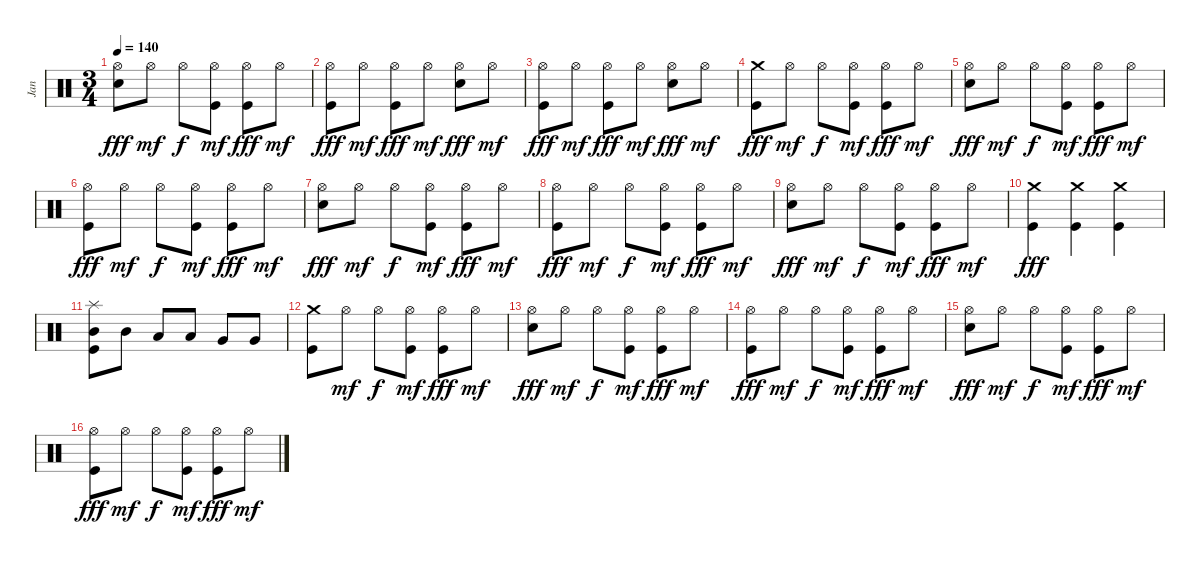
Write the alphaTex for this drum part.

\track ("Jan" "Jan") {instrument percussion}
\staff {score}
\articulation defaults
\ts (3 4)
\tempo 140
\clef neutral
\ks c
("Snare (hit) 2" "Hi-Hat (open)").8{dy fff} "Hi-Hat (open)".8{dy mf} "Hi-Hat (open)".8{dy f} ("Kick (hit)" "Hi-Hat (open)").8{dy mf} ("Kick (hit)" "Hi-Hat (open)").8{dy fff} "Hi-Hat (open)".8{dy mf} |
("Kick (hit)" "Hi-Hat (open)").8{dy fff} "Hi-Hat (open)".8{dy mf} ("Kick (hit)" "Hi-Hat (open)").8{dy fff} "Hi-Hat (open)".8{dy mf} ("Snare (hit) 2" "Hi-Hat (open)").8{dy fff} "Hi-Hat (open)".8{dy mf} |
("Kick (hit)" "Hi-Hat (open)").8{dy fff} "Hi-Hat (open)".8{dy mf} ("Kick (hit)" "Hi-Hat (open)").8{dy fff} "Hi-Hat (open)".8{dy mf} ("Snare (hit) 2" "Hi-Hat (open)").8{dy fff} "Hi-Hat (open)".8{dy mf} |
("Kick (hit)" "Crash medium (hit)").8{dy fff} "Hi-Hat (open)".8{dy mf} "Hi-Hat (open)".8{dy f} ("Kick (hit)" "Hi-Hat (open)").8{dy mf} ("Kick (hit)" "Hi-Hat (open)").8{dy fff} "Hi-Hat (open)".8{dy mf} |
("Snare (hit) 2" "Hi-Hat (open)").8{dy fff} "Hi-Hat (open)".8{dy mf} "Hi-Hat (open)".8{dy f} ("Kick (hit)" "Hi-Hat (open)").8{dy mf} ("Kick (hit)" "Hi-Hat (open)").8{dy fff} "Hi-Hat (open)".8{dy mf} |
("Kick (hit)" "Hi-Hat (open)").8{dy fff} "Hi-Hat (open)".8{dy mf} "Hi-Hat (open)".8{dy f} ("Kick (hit)" "Hi-Hat (open)").8{dy mf} ("Kick (hit)" "Hi-Hat (open)").8{dy fff} "Hi-Hat (open)".8{dy mf} |
("Snare (hit) 2" "Hi-Hat (open)").8{dy fff} "Hi-Hat (open)".8{dy mf} "Hi-Hat (open)".8{dy f} ("Kick (hit)" "Hi-Hat (open)").8{dy mf} ("Kick (hit)" "Hi-Hat (open)").8{dy fff} "Hi-Hat (open)".8{dy mf} |
("Kick (hit)" "Hi-Hat (open)").8{dy fff} "Hi-Hat (open)".8{dy mf} "Hi-Hat (open)".8{dy f} ("Kick (hit)" "Hi-Hat (open)").8{dy mf} ("Kick (hit)" "Hi-Hat (open)").8{dy fff} "Hi-Hat (open)".8{dy mf} |
("Snare (hit) 2" "Hi-Hat (open)").8{dy fff} "Hi-Hat (open)".8{dy mf} "Hi-Hat (open)".8{dy f} ("Kick (hit)" "Hi-Hat (open)").8{dy mf} ("Kick (hit)" "Hi-Hat (open)").8{dy fff} "Hi-Hat (open)".8{dy mf} |
("Kick (hit)" "Crash medium (hit)").4{dy fff} ("Kick (hit)" "Crash medium (hit)").4 ("Kick (hit)" "Crash medium (hit)").4 |
("Kick (hit)" "Mid Tom (hit)" "Splash (hit)").8 "Mid Tom (hit)".8 "Low Tom (hit)".8 "Low Tom (hit)".8 "Very Low Tom (hit)".8 "Very Low Tom (hit)".8 |
("Kick (hit)" "Crash medium (hit)").8 "Hi-Hat (open)".8{dy mf} "Hi-Hat (open)".8{dy f} ("Kick (hit)" "Hi-Hat (open)").8{dy mf} ("Kick (hit)" "Hi-Hat (open)").8{dy fff} "Hi-Hat (open)".8{dy mf} |
("Snare (hit) 2" "Hi-Hat (open)").8{dy fff} "Hi-Hat (open)".8{dy mf} "Hi-Hat (open)".8{dy f} ("Kick (hit)" "Hi-Hat (open)").8{dy mf} ("Kick (hit)" "Hi-Hat (open)").8{dy fff} "Hi-Hat (open)".8{dy mf} |
("Kick (hit)" "Hi-Hat (open)").8{dy fff} "Hi-Hat (open)".8{dy mf} "Hi-Hat (open)".8{dy f} ("Kick (hit)" "Hi-Hat (open)").8{dy mf} ("Kick (hit)" "Hi-Hat (open)").8{dy fff} "Hi-Hat (open)".8{dy mf} |
("Snare (hit) 2" "Hi-Hat (open)").8{dy fff} "Hi-Hat (open)".8{dy mf} "Hi-Hat (open)".8{dy f} ("Kick (hit)" "Hi-Hat (open)").8{dy mf} ("Kick (hit)" "Hi-Hat (open)").8{dy fff} "Hi-Hat (open)".8{dy mf} |
("Kick (hit)" "Hi-Hat (open)").8{dy fff} "Hi-Hat (open)".8{dy mf} "Hi-Hat (open)".8{dy f} ("Kick (hit)" "Hi-Hat (open)").8{dy mf} ("Kick (hit)" "Hi-Hat (open)").8{dy fff} "Hi-Hat (open)".8{dy mf}
